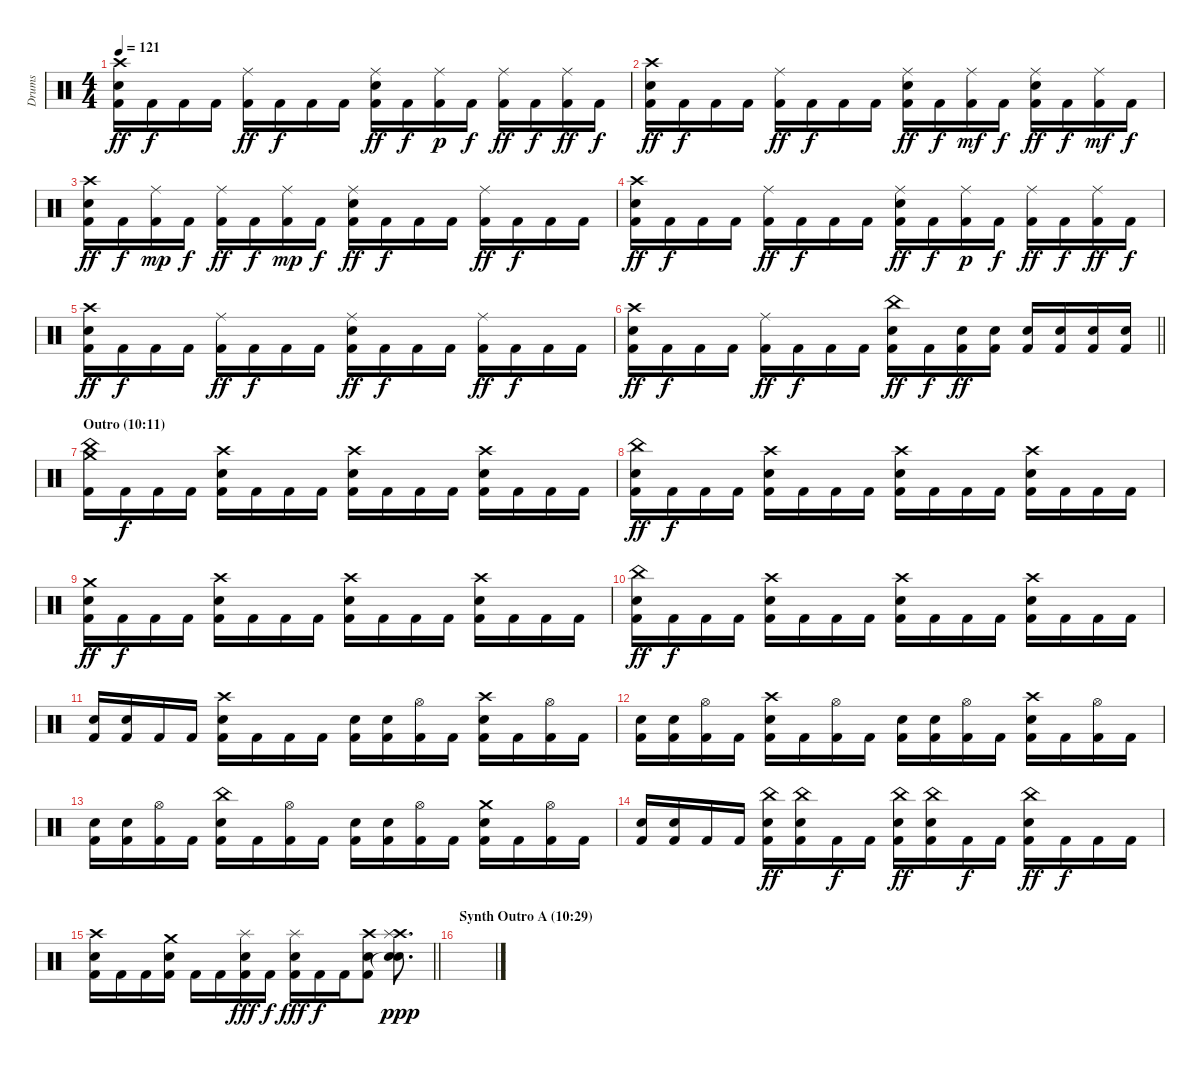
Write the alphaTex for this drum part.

\track ("Drums" "Drums") {instrument percussion}
\staff {score}
\articulation defaults
\ts (4 4)
\tempo 121
\clef neutral
\ks c
("Crash high (hit)" "Electric Snare (hit)" "Kick (hit) 2").16{dy ff} "Kick (hit) 2".16{dy f} "Kick (hit) 2".16 "Kick (hit) 2".16 ("Ride (middle)" "Kick (hit) 2").16{dy ff} "Kick (hit) 2".16{dy f} "Kick (hit) 2".16 "Kick (hit) 2".16 ("Ride (middle)" "Electric Snare (hit)" "Kick (hit) 2").16{dy ff} "Kick (hit) 2".16{dy f} ("Ride (middle)" "Kick (hit) 2").16{dy p} "Kick (hit) 2".16{dy f} ("Ride (middle)" "Kick (hit) 2").16{dy ff} "Kick (hit) 2".16{dy f} ("Ride (middle)" "Kick (hit) 2").16{dy ff} "Kick (hit) 2".16{dy f} |
("Crash high (hit)" "Electric Snare (hit)" "Kick (hit) 2").16{dy ff} "Kick (hit) 2".16{dy f} "Kick (hit) 2".16 "Kick (hit) 2".16 ("Ride (middle)" "Kick (hit) 2").16{dy ff} "Kick (hit) 2".16{dy f} "Kick (hit) 2".16 "Kick (hit) 2".16 ("Ride (middle)" "Electric Snare (hit)" "Kick (hit) 2").16{dy ff} "Kick (hit) 2".16{dy f} ("Ride (middle)" "Kick (hit) 2").16{dy mf} "Kick (hit) 2".16{dy f} ("Ride (middle)" "Electric Snare (hit)" "Kick (hit) 2").16{dy ff} "Kick (hit) 2".16{dy f} ("Ride (middle)" "Kick (hit) 2").16{dy mf} "Kick (hit) 2".16{dy f} |
("Crash high (hit)" "Electric Snare (hit)" "Kick (hit) 2").16{dy ff} "Kick (hit) 2".16{dy f} ("Ride (middle)" "Kick (hit) 2").16{dy mp} "Kick (hit) 2".16{dy f} ("Ride (middle)" "Kick (hit) 2").16{dy ff} "Kick (hit) 2".16{dy f} ("Ride (middle)" "Kick (hit) 2").16{dy mp} "Kick (hit) 2".16{dy f} ("Ride (middle)" "Electric Snare (hit)" "Kick (hit) 2").16{dy ff} "Kick (hit) 2".16{dy f} "Kick (hit) 2".16 "Kick (hit) 2".16 ("Ride (middle)" "Kick (hit) 2").16{dy ff} "Kick (hit) 2".16{dy f} "Kick (hit) 2".16 "Kick (hit) 2".16 |
("Crash high (hit)" "Electric Snare (hit)" "Kick (hit) 2").16{dy ff} "Kick (hit) 2".16{dy f} "Kick (hit) 2".16 "Kick (hit) 2".16 ("Ride (middle)" "Kick (hit) 2").16{dy ff} "Kick (hit) 2".16{dy f} "Kick (hit) 2".16 "Kick (hit) 2".16 ("Ride (middle)" "Electric Snare (hit)" "Kick (hit) 2").16{dy ff} "Kick (hit) 2".16{dy f} ("Ride (middle)" "Kick (hit) 2").16{dy p} "Kick (hit) 2".16{dy f} ("Ride (middle)" "Kick (hit) 2").16{dy ff} "Kick (hit) 2".16{dy f} ("Ride (middle)" "Kick (hit) 2").16{dy ff} "Kick (hit) 2".16{dy f} |
("Crash high (hit)" "Electric Snare (hit)" "Kick (hit) 2").16{dy ff} "Kick (hit) 2".16{dy f} "Kick (hit) 2".16 "Kick (hit) 2".16 ("Ride (middle)" "Kick (hit) 2").16{dy ff} "Kick (hit) 2".16{dy f} "Kick (hit) 2".16 "Kick (hit) 2".16 ("Ride (middle)" "Electric Snare (hit)" "Kick (hit) 2").16{dy ff} "Kick (hit) 2".16{dy f} "Kick (hit) 2".16 "Kick (hit) 2".16 ("Ride (middle)" "Kick (hit) 2").16{dy ff} "Kick (hit) 2".16{dy f} "Kick (hit) 2".16 "Kick (hit) 2".16 |
\barLineRight lightlight
("Crash high (hit)" "Electric Snare (hit)" "Kick (hit) 2").16{dy ff} "Kick (hit) 2".16{dy f} "Kick (hit) 2".16 "Kick (hit) 2".16 ("Ride (middle)" "Kick (hit) 2").16{dy ff} "Kick (hit) 2".16{dy f} "Kick (hit) 2".16 "Kick (hit) 2".16 ("China (hit)" "Electric Snare (hit)" "Kick (hit) 2").16{dy ff} "Kick (hit) 2".16{dy f} ("Electric Snare (hit)" "Kick (hit) 2").16{dy ff} ("Electric Snare (hit)" "Kick (hit) 2").16 ("Electric Snare (hit)" "Kick (hit) 2").16 ("Electric Snare (hit)" "Kick (hit) 2").16 ("Electric Snare (hit)" "Kick (hit) 2").16 ("Electric Snare (hit)" "Kick (hit) 2").16 |
\section ("" "Outro (10:11)")
("China (hit)" "Crash medium (hit)" "Kick (hit) 2").16 "Kick (hit) 2".16{dy f} "Kick (hit) 2".16 "Kick (hit) 2".16 ("Crash high (hit)" "Electric Snare (hit)" "Kick (hit) 2").16 "Kick (hit) 2".16 "Kick (hit) 2".16 "Kick (hit) 2".16 ("Crash high (hit)" "Electric Snare (hit)" "Kick (hit) 2").16 "Kick (hit) 2".16 "Kick (hit) 2".16 "Kick (hit) 2".16 ("Crash high (hit)" "Electric Snare (hit)" "Kick (hit) 2").16 "Kick (hit) 2".16 "Kick (hit) 2".16 "Kick (hit) 2".16 |
("China (hit)" "Electric Snare (hit)" "Kick (hit) 2").16{dy ff} "Kick (hit) 2".16{dy f} "Kick (hit) 2".16 "Kick (hit) 2".16 ("Crash high (hit)" "Electric Snare (hit)" "Kick (hit) 2").16 "Kick (hit) 2".16 "Kick (hit) 2".16 "Kick (hit) 2".16 ("Crash high (hit)" "Electric Snare (hit)" "Kick (hit) 2").16 "Kick (hit) 2".16 "Kick (hit) 2".16 "Kick (hit) 2".16 ("Crash high (hit)" "Electric Snare (hit)" "Kick (hit) 2").16 "Kick (hit) 2".16 "Kick (hit) 2".16 "Kick (hit) 2".16 |
("Crash medium (hit)" "Electric Snare (hit)" "Kick (hit) 2").16{dy ff} "Kick (hit) 2".16{dy f} "Kick (hit) 2".16 "Kick (hit) 2".16 ("Crash high (hit)" "Electric Snare (hit)" "Kick (hit) 2").16 "Kick (hit) 2".16 "Kick (hit) 2".16 "Kick (hit) 2".16 ("Crash high (hit)" "Electric Snare (hit)" "Kick (hit) 2").16 "Kick (hit) 2".16 "Kick (hit) 2".16 "Kick (hit) 2".16 ("Crash high (hit)" "Electric Snare (hit)" "Kick (hit) 2").16 "Kick (hit) 2".16 "Kick (hit) 2".16 "Kick (hit) 2".16 |
("China (hit)" "Electric Snare (hit)" "Kick (hit) 2").16{dy ff} "Kick (hit) 2".16{dy f} "Kick (hit) 2".16 "Kick (hit) 2".16 ("Crash high (hit)" "Electric Snare (hit)" "Kick (hit) 2").16 "Kick (hit) 2".16 "Kick (hit) 2".16 "Kick (hit) 2".16 ("Crash high (hit)" "Electric Snare (hit)" "Kick (hit) 2").16 "Kick (hit) 2".16 "Kick (hit) 2".16 "Kick (hit) 2".16 ("Crash high (hit)" "Electric Snare (hit)" "Kick (hit) 2").16 "Kick (hit) 2".16 "Kick (hit) 2".16 "Kick (hit) 2".16 |
("Electric Snare (hit)" "Kick (hit) 2").16 ("Electric Snare (hit)" "Kick (hit) 2").16 "Kick (hit) 2".16 "Kick (hit) 2".16 ("Crash high (hit)" "Electric Snare (hit)" "Kick (hit) 2").16 "Kick (hit) 2".16 "Kick (hit) 2".16 "Kick (hit) 2".16 ("Electric Snare (hit)" "Kick (hit) 2").16 ("Electric Snare (hit)" "Kick (hit) 2").16 ("Hi-Hat (open)" "Kick (hit) 2").16 "Kick (hit) 2".16 ("Crash high (hit)" "Electric Snare (hit)" "Kick (hit) 2").16 "Kick (hit) 2".16 ("Hi-Hat (open)" "Kick (hit) 2").16 "Kick (hit) 2".16 |
("Electric Snare (hit)" "Kick (hit) 2").16 ("Electric Snare (hit)" "Kick (hit) 2").16 ("Hi-Hat (open)" "Kick (hit) 2").16 "Kick (hit) 2".16 ("Crash high (hit)" "Electric Snare (hit)" "Kick (hit) 2").16 "Kick (hit) 2".16 ("Hi-Hat (open)" "Kick (hit) 2").16 "Kick (hit) 2".16 ("Electric Snare (hit)" "Kick (hit) 2").16 ("Electric Snare (hit)" "Kick (hit) 2").16 ("Hi-Hat (open)" "Kick (hit) 2").16 "Kick (hit) 2".16 ("Crash high (hit)" "Electric Snare (hit)" "Kick (hit) 2").16 "Kick (hit) 2".16 ("Hi-Hat (open)" "Kick (hit) 2").16 "Kick (hit) 2".16 |
("Electric Snare (hit)" "Kick (hit) 2").16 ("Electric Snare (hit)" "Kick (hit) 2").16 ("Hi-Hat (open)" "Kick (hit) 2").16 "Kick (hit) 2".16 ("China (hit)" "Electric Snare (hit)" "Kick (hit) 2").16 "Kick (hit) 2".16 ("Hi-Hat (open)" "Kick (hit) 2").16 "Kick (hit) 2".16 ("Electric Snare (hit)" "Kick (hit) 2").16 ("Electric Snare (hit)" "Kick (hit) 2").16 ("Hi-Hat (open)" "Kick (hit) 2").16 "Kick (hit) 2".16 ("Crash medium (hit)" "Electric Snare (hit)" "Kick (hit) 2").16 "Kick (hit) 2".16 ("Hi-Hat (open)" "Kick (hit) 2").16 "Kick (hit) 2".16 |
("Electric Snare (hit)" "Kick (hit) 2").16 ("Electric Snare (hit)" "Kick (hit) 2").16 "Kick (hit) 2".16 "Kick (hit) 2".16 ("China (hit)" "Electric Snare (hit)" "Kick (hit) 2").16{dy ff} ("China (hit)" "Electric Snare (hit)" "Kick (hit) 2").16 "Kick (hit) 2".16{dy f} "Kick (hit) 2".16 ("China (hit)" "Electric Snare (hit)" "Kick (hit) 2").16{dy ff} ("China (hit)" "Electric Snare (hit)" "Kick (hit) 2").16 "Kick (hit) 2".16{dy f} "Kick (hit) 2".16 ("China (hit)" "Electric Snare (hit)" "Kick (hit) 2").16{dy ff} "Kick (hit) 2".16{dy f} "Kick (hit) 2".16 "Kick (hit) 2".16 |
\barLineRight lightlight
("Crash high (hit)" "Electric Snare (hit)" "Kick (hit) 2").16 "Kick (hit) 2".16 "Kick (hit) 2".16 ("Crash medium (hit)" "Electric Snare (hit)" "Kick (hit) 2").16 "Kick (hit) 2".16 "Kick (hit) 2".16 ("Splash (hit)" "Electric Snare (hit)" "Kick (hit) 2").16{dy fff} "Kick (hit) 2".16{dy f} ("Splash (hit)" "Electric Snare (hit)" "Kick (hit) 2").16{dy fff} "Kick (hit) 2".16{dy f} "Kick (hit) 2".16 ("Crash high (hit)" "Electric Snare (hit)" "Kick (hit) 2").8 ("Crash high (hit)" "Splash (hit)" "Snare (hit)"{t} "Snare (hit)").8{d dy ppp} |
\section ("" "Synth Outro A (10:29)")
